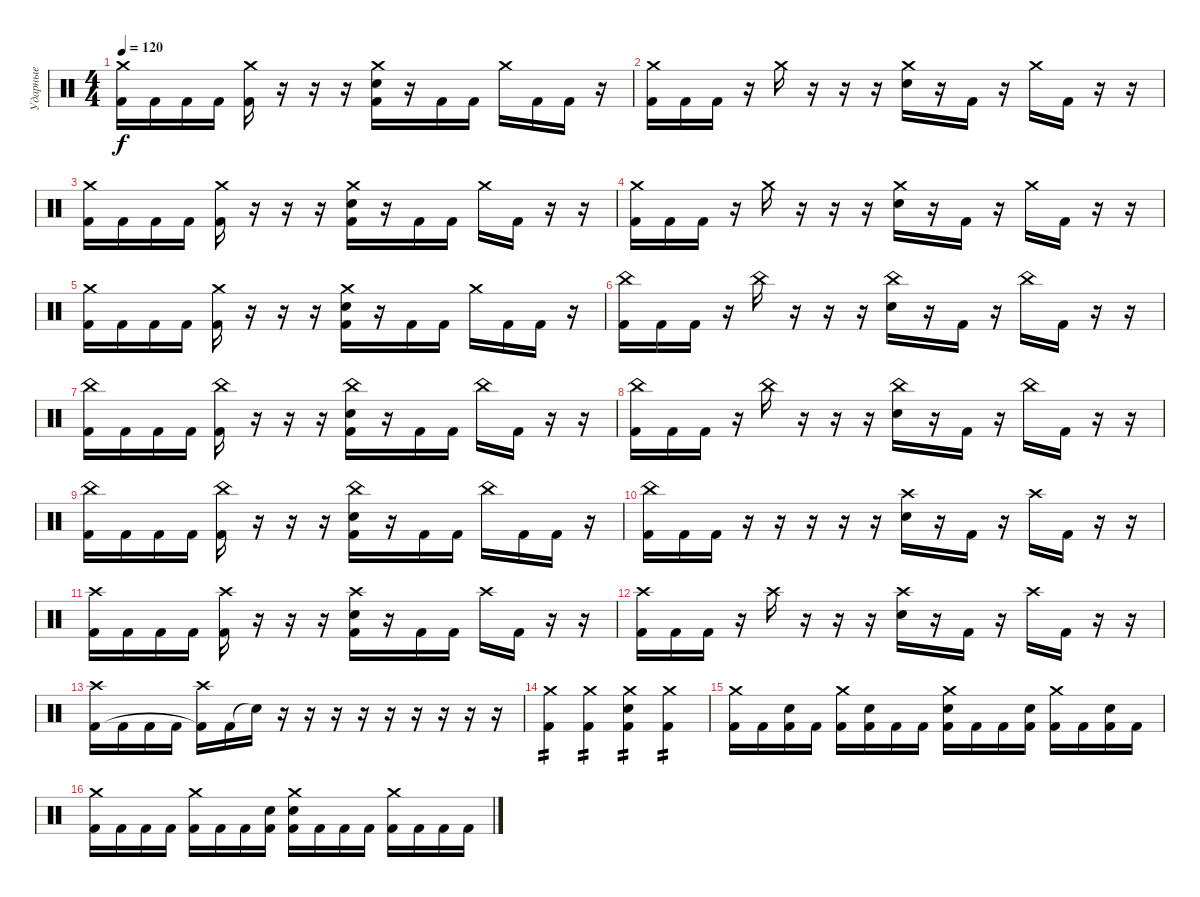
\track ("Ударные" "Ударные") {instrument percussion}
\staff {score}
\articulation defaults
\ts (4 4)
\tempo 120
\clef neutral
\ks c
("Crash medium (hit)" "Kick (hit) 2").16{dy f} "Kick (hit) 2".16 "Kick (hit) 2".16 "Kick (hit) 2".16 ("Crash medium (hit)" "Kick (hit) 2").16 r.16 r.16 r.16 ("Crash medium (hit)" "Electric Snare (hit)" "Kick (hit) 2").16 r.16 "Kick (hit) 2".16 "Kick (hit) 2".16 "Crash medium (hit)".16 "Kick (hit) 2".16 "Kick (hit) 2".16 r.16 |
("Crash medium (hit)" "Kick (hit) 2").16 "Kick (hit) 2".16 "Kick (hit) 2".16 r.16 "Crash medium (hit)".16 r.16 r.16 r.16 ("Crash medium (hit)" "Electric Snare (hit)").16 r.16 "Kick (hit) 2".16 r.16 "Crash medium (hit)".16 "Kick (hit) 2".16 r.16 r.16 |
("Crash medium (hit)" "Kick (hit) 2").16 "Kick (hit) 2".16 "Kick (hit) 2".16 "Kick (hit) 2".16 ("Crash medium (hit)" "Kick (hit) 2").16 r.16 r.16 r.16 ("Crash medium (hit)" "Electric Snare (hit)" "Kick (hit) 2").16 r.16 "Kick (hit) 2".16 "Kick (hit) 2".16 "Crash medium (hit)".16 "Kick (hit) 2".16 r.16 r.16 |
("Crash medium (hit)" "Kick (hit) 2").16 "Kick (hit) 2".16 "Kick (hit) 2".16 r.16 "Crash medium (hit)".16 r.16 r.16 r.16 ("Crash medium (hit)" "Electric Snare (hit)").16 r.16 "Kick (hit) 2".16 r.16 "Crash medium (hit)".16 "Kick (hit) 2".16 r.16 r.16 |
("Crash medium (hit)" "Kick (hit) 2").16 "Kick (hit) 2".16 "Kick (hit) 2".16 "Kick (hit) 2".16 ("Crash medium (hit)" "Kick (hit) 2").16 r.16 r.16 r.16 ("Crash medium (hit)" "Electric Snare (hit)" "Kick (hit) 2").16 r.16 "Kick (hit) 2".16 "Kick (hit) 2".16 "Crash medium (hit)".16 "Kick (hit) 2".16 "Kick (hit) 2".16 r.16 |
("China (hit)" "Kick (hit) 2").16 "Kick (hit) 2".16 "Kick (hit) 2".16 r.16 "China (hit)".16 r.16 r.16 r.16 ("China (hit)" "Electric Snare (hit)").16 r.16 "Kick (hit) 2".16 r.16 "China (hit)".16 "Kick (hit) 2".16 r.16 r.16 |
("China (hit)" "Kick (hit) 2").16 "Kick (hit) 2".16 "Kick (hit) 2".16 "Kick (hit) 2".16 ("China (hit)" "Kick (hit) 2").16 r.16 r.16 r.16 ("China (hit)" "Electric Snare (hit)" "Kick (hit) 2").16 r.16 "Kick (hit) 2".16 "Kick (hit) 2".16 "China (hit)".16 "Kick (hit) 2".16 r.16 r.16 |
("China (hit)" "Kick (hit) 2").16 "Kick (hit) 2".16 "Kick (hit) 2".16 r.16 "China (hit)".16 r.16 r.16 r.16 ("China (hit)" "Electric Snare (hit)").16 r.16 "Kick (hit) 2".16 r.16 "China (hit)".16 "Kick (hit) 2".16 r.16 r.16 |
("China (hit)" "Kick (hit) 2").16 "Kick (hit) 2".16 "Kick (hit) 2".16 "Kick (hit) 2".16 ("China (hit)" "Kick (hit) 2").16 r.16 r.16 r.16 ("China (hit)" "Electric Snare (hit)" "Kick (hit) 2").16 r.16 "Kick (hit) 2".16 "Kick (hit) 2".16 "China (hit)".16 "Kick (hit) 2".16 "Kick (hit) 2".16 r.16 |
("China (hit)" "Kick (hit) 2").16 "Kick (hit) 2".16 "Kick (hit) 2".16 r.16 r.16 r.16 r.16 r.16 ("Crash high (hit)" "Electric Snare (hit)").16 r.16 "Kick (hit) 2".16 r.16 "Crash high (hit)".16 "Kick (hit) 2".16 r.16 r.16 |
("Crash high (hit)" "Kick (hit) 2").16 "Kick (hit) 2".16 "Kick (hit) 2".16 "Kick (hit) 2".16 ("Crash high (hit)" "Kick (hit) 2").16 r.16 r.16 r.16 ("Crash high (hit)" "Electric Snare (hit)" "Kick (hit) 2").16 r.16 "Kick (hit) 2".16 "Kick (hit) 2".16 "Crash high (hit)".16 "Kick (hit) 2".16 r.16 r.16 |
("Crash high (hit)" "Kick (hit) 2").16 "Kick (hit) 2".16 "Kick (hit) 2".16 r.16 "Crash high (hit)".16 r.16 r.16 r.16 ("Crash high (hit)" "Electric Snare (hit)").16 r.16 "Kick (hit) 2".16 r.16 "Crash high (hit)".16 "Kick (hit) 2".16 r.16 r.16 |
("Crash high (hit)" "Kick (hit) 2").16 "Kick (hit) 2".16 "Kick (hit) 2".16 "Kick (hit) 2".16 ("Crash high (hit)" "Kick (hit) 2"{t}).16 "Kick (hit) 2".16 "Snare (hit)"{t}.16 r.16 r.16 r.16 r.16 r.16 r.16 r.16 r.16 r.16 |
("Crash medium (hit)" "Kick (hit) 2").4{tp 2} ("Crash medium (hit)" "Kick (hit) 2").4{tp 2} ("Crash medium (hit)" "Electric Snare (hit)" "Kick (hit) 2").4{tp 2} ("Crash medium (hit)" "Kick (hit) 2").4{tp 2} |
("Crash medium (hit)" "Kick (hit) 2").16 "Kick (hit) 2".16 ("Electric Snare (hit)" "Kick (hit) 2").16 "Kick (hit) 2".16 ("Crash medium (hit)" "Kick (hit) 2").16 ("Electric Snare (hit)" "Kick (hit) 2").16 "Kick (hit) 2".16 "Kick (hit) 2".16 ("Crash medium (hit)" "Electric Snare (hit)" "Kick (hit) 2").16 "Kick (hit) 2".16 "Kick (hit) 2".16 ("Electric Snare (hit)" "Kick (hit) 2").16 ("Crash medium (hit)" "Kick (hit) 2").16 "Kick (hit) 2".16 ("Electric Snare (hit)" "Kick (hit) 2").16 "Kick (hit) 2".16 |
("Crash medium (hit)" "Kick (hit) 2").16 "Kick (hit) 2".16 "Kick (hit) 2".16 "Kick (hit) 2".16 ("Crash medium (hit)" "Kick (hit) 2").16 "Kick (hit) 2".16 "Kick (hit) 2".16 ("Electric Snare (hit)" "Kick (hit) 2").16 ("Crash medium (hit)" "Electric Snare (hit)" "Kick (hit) 2").16 "Kick (hit) 2".16 "Kick (hit) 2".16 "Kick (hit) 2".16 ("Crash medium (hit)" "Kick (hit) 2").16 "Kick (hit) 2".16 "Kick (hit) 2".16 "Kick (hit) 2".16
